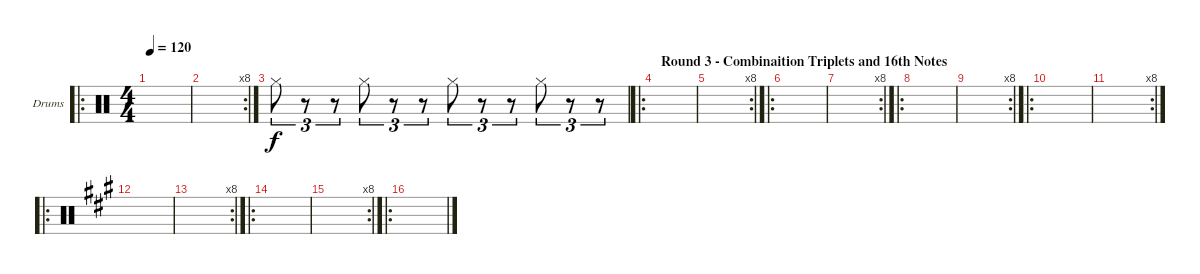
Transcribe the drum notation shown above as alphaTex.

\defaultSystemsLayout 4
\bracketExtendMode groupsimilarinstruments
\firstSystemTrackNameOrientation horizontal
\otherSystemsTrackNameOrientation horizontal
\track ("Drumkit" "Drums") {instrument percussion}
\staff {score}
\articulation defaults
\ro
\ts (4 4)
\tempo 120
\clef neutral
\scale
0.365079
\ks c
|
\rc 8
\scale
0.333333 |
\scale
0.301587 "Hi-Hat (closed)".8{tu (3 2)} r.8{tu (3 2)} r.8{tu (3 2)} "Hi-Hat (closed)".8{tu (3 2)} r.8{tu (3 2)} r.8{tu (3 2)} "Hi-Hat (closed)".8{tu (3 2)} r.8{tu (3 2)} r.8{tu (3 2)} "Hi-Hat (closed)".8{tu (3 2)} r.8{tu (3 2)} r.8{tu (3 2)} |
\ro
\section ("" " Round 3 - Combinaition Triplets and 16th Notes     ")
\scale
0.343284 |
\rc 8
\scale
0.313433 |
\ro
\scale
0.343284 |
\rc 8
\scale
0.323077 |
\ro
\scale
0.353846 |
\rc 8
\scale
0.323077 |
\ro
\scale
0.279352 |
\rc 8
\scale
0.255061 |
\ro
\scale
0.465587
\ks a
|
\rc 8
\scale
0.323077 |
\ro
\scale
0.353846 |
\rc 8
\scale
0.323077 |
\ro
\scale
0.343284
